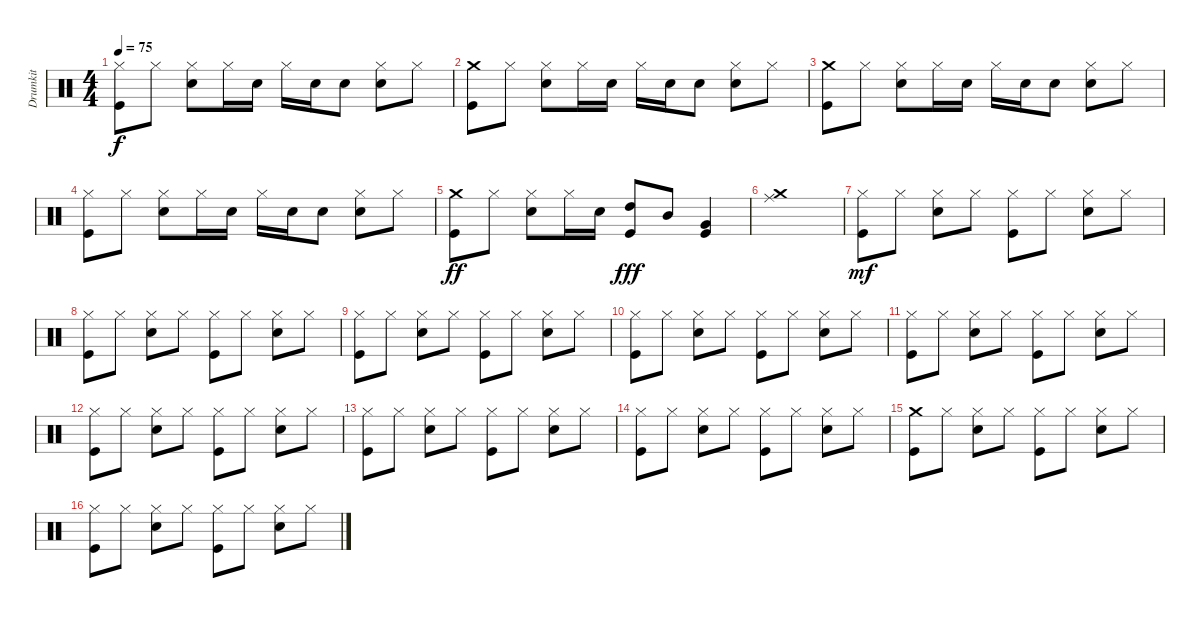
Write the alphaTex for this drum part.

\track ("Drumkit" "Drumkit") {instrument percussion}
\staff {score}
\articulation defaults
\ts (4 4)
\tempo 75
\clef neutral
\ks c
("Kick (hit)" "Hi-Hat (closed)").8{dy f} "Hi-Hat (closed)".8 ("Snare (hit) 2" "Hi-Hat (closed)").8 "Hi-Hat (closed)".16 "Snare (hit) 2".16 "Hi-Hat (closed)".16 "Snare (hit) 2".16 "Snare (hit) 2".8 ("Snare (hit) 2" "Hi-Hat (closed)").8 "Hi-Hat (closed)".8 |
("Kick (hit)" "Crash medium (hit)").8 "Hi-Hat (closed)".8 ("Snare (hit) 2" "Hi-Hat (closed)").8 "Hi-Hat (closed)".16 "Snare (hit) 2".16 "Hi-Hat (closed)".16 "Snare (hit) 2".16 "Snare (hit) 2".8 ("Snare (hit) 2" "Hi-Hat (closed)").8 "Hi-Hat (closed)".8 |
("Kick (hit)" "Crash medium (hit)").8 "Hi-Hat (closed)".8 ("Snare (hit) 2" "Hi-Hat (closed)").8 "Hi-Hat (closed)".16 "Snare (hit) 2".16 "Hi-Hat (closed)".16 "Snare (hit) 2".16 "Snare (hit) 2".8 ("Snare (hit) 2" "Hi-Hat (closed)").8 "Hi-Hat (closed)".8 |
("Kick (hit)" "Hi-Hat (closed)").8 "Hi-Hat (closed)".8 ("Snare (hit) 2" "Hi-Hat (closed)").8 "Hi-Hat (closed)".16 "Snare (hit) 2".16 "Hi-Hat (closed)".16 "Snare (hit) 2".16 "Snare (hit) 2".8 ("Snare (hit) 2" "Hi-Hat (closed)").8 "Hi-Hat (closed)".8 |
("Kick (hit)" "Crash medium (hit)").8{dy ff} "Hi-Hat (closed)".8 ("Snare (hit) 2" "Hi-Hat (closed)").8 "Hi-Hat (closed)".16 "Snare (hit) 2".16 ("Kick (hit)" "High Tom (hit)").8{dy fff} "Mid Tom (hit)".8 ("Very Low Tom (hit)" "Kick (hit)").4 |
("Ride (middle)" "Crash medium (hit)").1 |
("Kick (hit)" "Hi-Hat (closed)").8{dy mf} "Hi-Hat (closed)".8 ("Snare (hit) 2" "Hi-Hat (closed)").8 "Hi-Hat (closed)".8 ("Kick (hit)" "Hi-Hat (closed)").8 "Hi-Hat (closed)".8 ("Snare (hit) 2" "Hi-Hat (closed)").8 "Hi-Hat (closed)".8 |
("Kick (hit)" "Hi-Hat (closed)").8 "Hi-Hat (closed)".8 ("Snare (hit) 2" "Hi-Hat (closed)").8 "Hi-Hat (closed)".8 ("Kick (hit)" "Hi-Hat (closed)").8 "Hi-Hat (closed)".8 ("Snare (hit) 2" "Hi-Hat (closed)").8 "Hi-Hat (closed)".8 |
("Kick (hit)" "Hi-Hat (closed)").8 "Hi-Hat (closed)".8 ("Snare (hit) 2" "Hi-Hat (closed)").8 "Hi-Hat (closed)".8 ("Kick (hit)" "Hi-Hat (closed)").8 "Hi-Hat (closed)".8 ("Snare (hit) 2" "Hi-Hat (closed)").8 "Hi-Hat (closed)".8 |
("Kick (hit)" "Hi-Hat (closed)").8 "Hi-Hat (closed)".8 ("Snare (hit) 2" "Hi-Hat (closed)").8 "Hi-Hat (closed)".8 ("Kick (hit)" "Hi-Hat (closed)").8 "Hi-Hat (closed)".8 ("Snare (hit) 2" "Hi-Hat (closed)").8 "Hi-Hat (closed)".8 |
("Kick (hit)" "Hi-Hat (closed)").8 "Hi-Hat (closed)".8 ("Snare (hit) 2" "Hi-Hat (closed)").8 "Hi-Hat (closed)".8 ("Kick (hit)" "Hi-Hat (closed)").8 "Hi-Hat (closed)".8 ("Snare (hit) 2" "Hi-Hat (closed)").8 "Hi-Hat (closed)".8 |
("Kick (hit)" "Hi-Hat (closed)").8 "Hi-Hat (closed)".8 ("Snare (hit) 2" "Hi-Hat (closed)").8 "Hi-Hat (closed)".8 ("Kick (hit)" "Hi-Hat (closed)").8 "Hi-Hat (closed)".8 ("Snare (hit) 2" "Hi-Hat (closed)").8 "Hi-Hat (closed)".8 |
("Kick (hit)" "Hi-Hat (closed)").8 "Hi-Hat (closed)".8 ("Snare (hit) 2" "Hi-Hat (closed)").8 "Hi-Hat (closed)".8 ("Kick (hit)" "Hi-Hat (closed)").8 "Hi-Hat (closed)".8 ("Snare (hit) 2" "Hi-Hat (closed)").8 "Hi-Hat (closed)".8 |
("Kick (hit)" "Hi-Hat (closed)").8 "Hi-Hat (closed)".8 ("Snare (hit) 2" "Hi-Hat (closed)").8 "Hi-Hat (closed)".8 ("Kick (hit)" "Hi-Hat (closed)").8 "Hi-Hat (closed)".8 ("Snare (hit) 2" "Hi-Hat (closed)").8 "Hi-Hat (closed)".8 |
("Kick (hit)" "Crash medium (hit)").8 "Hi-Hat (closed)".8 ("Snare (hit) 2" "Hi-Hat (closed)").8 "Hi-Hat (closed)".8 ("Kick (hit)" "Hi-Hat (closed)").8 "Hi-Hat (closed)".8 ("Snare (hit) 2" "Hi-Hat (closed)").8 "Hi-Hat (closed)".8 |
("Kick (hit)" "Hi-Hat (closed)").8 "Hi-Hat (closed)".8 ("Snare (hit) 2" "Hi-Hat (closed)").8 "Hi-Hat (closed)".8 ("Kick (hit)" "Hi-Hat (closed)").8 "Hi-Hat (closed)".8 ("Snare (hit) 2" "Hi-Hat (closed)").8 "Hi-Hat (closed)".8
